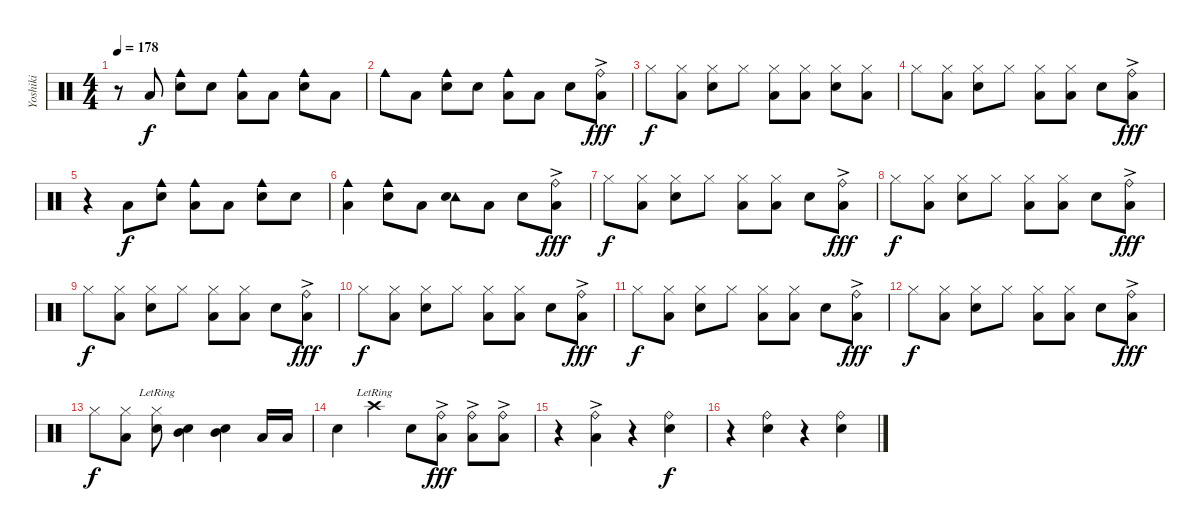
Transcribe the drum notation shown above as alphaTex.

\track ("Yoshiki" "Yoshiki") {instrument percussion}
\staff {score}
\articulation defaults
\ts (4 4)
\tempo 178
\clef neutral
\ks c
r.8{dy fff} "Low Floor Tom (hit)".8{dy f} ("Cowbell medium (hit)" "Snare (hit) 2").8 "Snare (hit) 2".8 ("Cowbell medium (hit)" "Low Floor Tom (hit)").8 "Low Floor Tom (hit)".8 ("Cowbell medium (hit)" "Snare (hit) 2").8 "Low Floor Tom (hit)".8 |
"Cowbell medium (hit)".8 "Low Floor Tom (hit)".8 ("Cowbell medium (hit)" "Snare (hit) 2").8 "Snare (hit) 2".8 ("Cowbell medium (hit)" "Low Floor Tom (hit)").8 "Low Floor Tom (hit)".8 "Snare (hit) 2".8 ("Ride (bell)"{ac} "Low Floor Tom (hit)").8{dy fff} |
"Hi-Hat (closed)".8{dy f} ("Hi-Hat (closed)" "Low Floor Tom (hit)").8 ("Hi-Hat (closed)" "Snare (hit) 2").8 "Hi-Hat (closed)".8 ("Hi-Hat (closed)" "Low Floor Tom (hit)").8 ("Hi-Hat (closed)" "Low Floor Tom (hit)").8 ("Hi-Hat (closed)" "Snare (hit) 2").8 ("Hi-Hat (closed)" "Low Floor Tom (hit)").8 |
"Hi-Hat (closed)".8 ("Hi-Hat (closed)" "Low Floor Tom (hit)").8 ("Hi-Hat (closed)" "Snare (hit) 2").8 "Hi-Hat (closed)".8 ("Hi-Hat (closed)" "Low Floor Tom (hit)").8 ("Hi-Hat (closed)" "Low Floor Tom (hit)").8 "Snare (hit) 2".8 ("Ride (bell)"{ac} "Low Floor Tom (hit)").8{dy fff} |
r.4 "Low Floor Tom (hit)".8{dy f} ("Cowbell medium (hit)" "Snare (hit) 2").8 ("Cowbell medium (hit)" "Low Floor Tom (hit)").8 "Low Floor Tom (hit)".8 ("Cowbell medium (hit)" "Snare (hit) 2").8 "Snare (hit) 2".8 |
("Cowbell medium (hit)" "Low Floor Tom (hit)").4 ("Cowbell medium (hit)" "Snare (hit) 2").8 "Low Floor Tom (hit)".8 ("Tambourine (hit)" "Snare (hit) 2").8 "Low Floor Tom (hit)".8 "Snare (hit) 2".8 ("Ride (bell)"{ac} "Low Floor Tom (hit)").8{dy fff} |
"Hi-Hat (closed)".8{dy f} ("Hi-Hat (closed)" "Low Floor Tom (hit)").8 ("Hi-Hat (closed)" "Snare (hit) 2").8 "Hi-Hat (closed)".8 ("Hi-Hat (closed)" "Low Floor Tom (hit)").8 ("Hi-Hat (closed)" "Low Floor Tom (hit)").8 "Snare (hit) 2".8 ("Ride (bell)"{ac} "Low Floor Tom (hit)").8{dy fff} |
"Hi-Hat (closed)".8{dy f} ("Hi-Hat (closed)" "Low Floor Tom (hit)").8 ("Hi-Hat (closed)" "Snare (hit) 2").8 "Hi-Hat (closed)".8 ("Hi-Hat (closed)" "Low Floor Tom (hit)").8 ("Hi-Hat (closed)" "Low Floor Tom (hit)").8 "Snare (hit) 2".8 ("Ride (bell)"{ac} "Low Floor Tom (hit)").8{dy fff} |
"Hi-Hat (closed)".8{dy f} ("Hi-Hat (closed)" "Low Floor Tom (hit)").8 ("Hi-Hat (closed)" "Snare (hit) 2").8 "Hi-Hat (closed)".8 ("Hi-Hat (closed)" "Low Floor Tom (hit)").8 ("Hi-Hat (closed)" "Low Floor Tom (hit)").8 "Snare (hit) 2".8 ("Ride (bell)"{ac} "Low Floor Tom (hit)").8{dy fff} |
"Hi-Hat (closed)".8{dy f} ("Hi-Hat (closed)" "Low Floor Tom (hit)").8 ("Hi-Hat (closed)" "Snare (hit) 2").8 "Hi-Hat (closed)".8 ("Hi-Hat (closed)" "Low Floor Tom (hit)").8 ("Hi-Hat (closed)" "Low Floor Tom (hit)").8 "Snare (hit) 2".8 ("Ride (bell)"{ac} "Low Floor Tom (hit)").8{dy fff} |
"Hi-Hat (closed)".8{dy f} ("Hi-Hat (closed)" "Low Floor Tom (hit)").8 ("Hi-Hat (closed)" "Snare (hit) 2").8 "Hi-Hat (closed)".8 ("Hi-Hat (closed)" "Low Floor Tom (hit)").8 ("Hi-Hat (closed)" "Low Floor Tom (hit)").8 "Snare (hit) 2".8 ("Ride (bell)"{ac} "Low Floor Tom (hit)").8{dy fff} |
"Hi-Hat (closed)".8{dy f} ("Hi-Hat (closed)" "Low Floor Tom (hit)").8 ("Hi-Hat (closed)" "Snare (hit) 2").8 "Hi-Hat (closed)".8 ("Hi-Hat (closed)" "Low Floor Tom (hit)").8 ("Hi-Hat (closed)" "Low Floor Tom (hit)").8 "Snare (hit) 2".8 ("Ride (bell)"{ac} "Low Floor Tom (hit)").8{dy fff} |
"Hi-Hat (closed)".8{dy f} ("Hi-Hat (closed)" "Low Floor Tom (hit)").8 ("Hi-Hat (closed)"{lr} "Snare (hit) 2").8 ("Snare (hit) 2" "Mid Tom (hit)").4 ("Snare (hit) 2" "Mid Tom (hit)").4 "Low Floor Tom (hit)".16 "Low Floor Tom (hit)".16 |
"Snare (hit) 2".4 "Crash high (hit)"{lr}.4 "Snare (hit) 2".8 ("Ride (bell)"{ac} "Low Floor Tom (hit)").8{dy fff} ("Ride (bell)"{ac} "Low Floor Tom (hit)").8 ("Ride (bell)"{ac} "Low Floor Tom (hit)").8 |
r.4 ("Low Tom (hit)" "Ride (bell)"{ac}).4 r.4 ("Snare (hit) 2" "Ride (bell)").4{dy f} |
r.4 ("Snare (hit) 2" "Ride (bell)").4 r.4 ("Snare (hit) 2" "Ride (bell)").4
